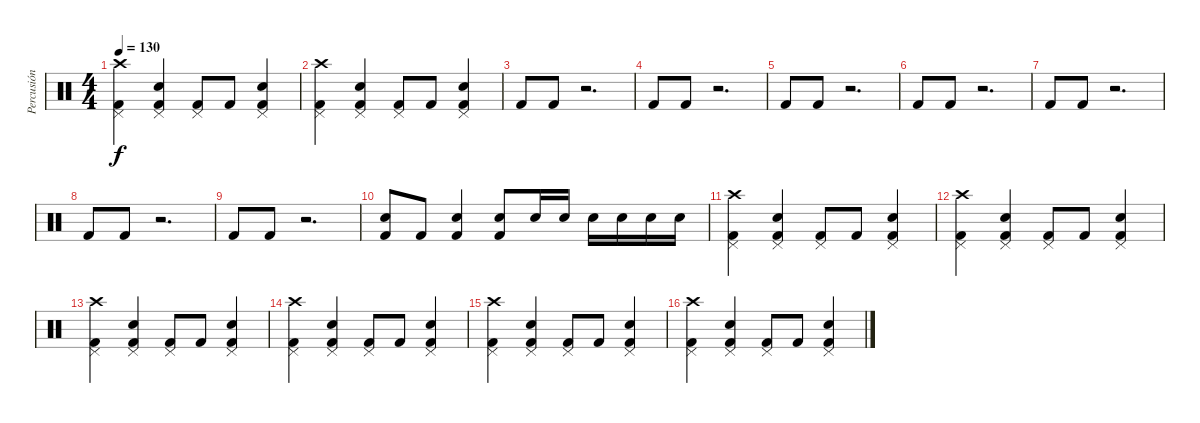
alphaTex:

\track ("Percusión" "Percusión") {instrument percussion}
\staff {score}
\articulation defaults
\ts (4 4)
\tempo 130
\clef neutral
\ks c
("Crash high (hit)" "Pedal Hi-Hat (hit)" "Kick (hit) 2").4{dy f} ("Pedal Hi-Hat (hit)" "Electric Snare (hit)" "Kick (hit) 2").4 ("Pedal Hi-Hat (hit)" "Kick (hit) 2").8 "Kick (hit) 2".8 ("Pedal Hi-Hat (hit)" "Kick (hit) 2" "Electric Snare (hit)").4 |
("Crash high (hit)" "Pedal Hi-Hat (hit)" "Kick (hit) 2").4 ("Pedal Hi-Hat (hit)" "Electric Snare (hit)" "Kick (hit) 2").4 ("Pedal Hi-Hat (hit)" "Kick (hit) 2").8 "Kick (hit) 2".8 ("Pedal Hi-Hat (hit)" "Kick (hit) 2" "Electric Snare (hit)").4 |
"Kick (hit) 2".8 "Kick (hit) 2".8 r.2{d} |
"Kick (hit) 2".8 "Kick (hit) 2".8 r.2{d} |
"Kick (hit) 2".8 "Kick (hit) 2".8 r.2{d} |
"Kick (hit) 2".8 "Kick (hit) 2".8 r.2{d} |
"Kick (hit) 2".8 "Kick (hit) 2".8 r.2{d} |
"Kick (hit) 2".8 "Kick (hit) 2".8 r.2{d} |
"Kick (hit) 2".8 "Kick (hit) 2".8 r.2{d} |
("Kick (hit) 2" "Electric Snare (hit)").8 "Kick (hit) 2".8 ("Kick (hit) 2" "Electric Snare (hit)").4 ("Kick (hit) 2" "Electric Snare (hit)").8 "Electric Snare (hit)".16 "Electric Snare (hit)".16 "Electric Snare (hit)".16 "Electric Snare (hit)".16 "Electric Snare (hit)".16 "Electric Snare (hit)".16 |
("Crash high (hit)" "Pedal Hi-Hat (hit)" "Kick (hit) 2").4 ("Pedal Hi-Hat (hit)" "Electric Snare (hit)" "Kick (hit) 2").4 ("Pedal Hi-Hat (hit)" "Kick (hit) 2").8 "Kick (hit) 2".8 ("Pedal Hi-Hat (hit)" "Kick (hit) 2" "Electric Snare (hit)").4 |
("Crash high (hit)" "Pedal Hi-Hat (hit)" "Kick (hit) 2").4 ("Pedal Hi-Hat (hit)" "Electric Snare (hit)" "Kick (hit) 2").4 ("Pedal Hi-Hat (hit)" "Kick (hit) 2").8 "Kick (hit) 2".8 ("Pedal Hi-Hat (hit)" "Kick (hit) 2" "Electric Snare (hit)").4 |
("Crash high (hit)" "Pedal Hi-Hat (hit)" "Kick (hit) 2").4 ("Pedal Hi-Hat (hit)" "Electric Snare (hit)" "Kick (hit) 2").4 ("Pedal Hi-Hat (hit)" "Kick (hit) 2").8 "Kick (hit) 2".8 ("Pedal Hi-Hat (hit)" "Kick (hit) 2" "Electric Snare (hit)").4 |
("Crash high (hit)" "Pedal Hi-Hat (hit)" "Kick (hit) 2").4 ("Pedal Hi-Hat (hit)" "Electric Snare (hit)" "Kick (hit) 2").4 ("Pedal Hi-Hat (hit)" "Kick (hit) 2").8 "Kick (hit) 2".8 ("Pedal Hi-Hat (hit)" "Kick (hit) 2" "Electric Snare (hit)").4 |
("Crash high (hit)" "Pedal Hi-Hat (hit)" "Kick (hit) 2").4 ("Pedal Hi-Hat (hit)" "Electric Snare (hit)" "Kick (hit) 2").4 ("Pedal Hi-Hat (hit)" "Kick (hit) 2").8 "Kick (hit) 2".8 ("Pedal Hi-Hat (hit)" "Kick (hit) 2" "Electric Snare (hit)").4 |
("Crash high (hit)" "Pedal Hi-Hat (hit)" "Kick (hit) 2").4 ("Pedal Hi-Hat (hit)" "Electric Snare (hit)" "Kick (hit) 2").4 ("Pedal Hi-Hat (hit)" "Kick (hit) 2").8 "Kick (hit) 2".8 ("Pedal Hi-Hat (hit)" "Kick (hit) 2" "Electric Snare (hit)").4
